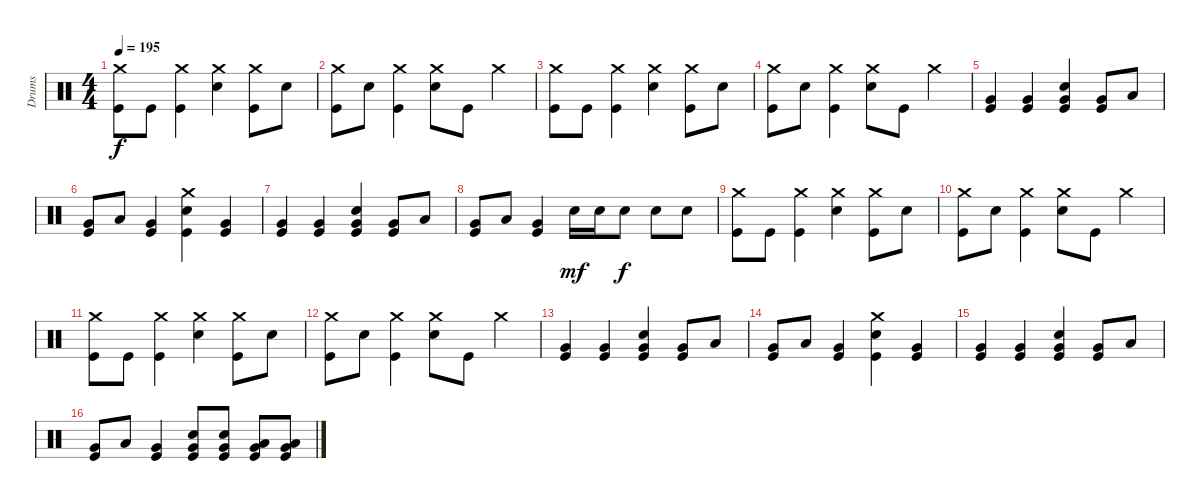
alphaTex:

\track ("Drums" "Drums") {instrument percussion}
\staff {score}
\articulation defaults
\ts (4 4)
\tempo 195
\clef neutral
\ks c
("Crash medium (hit)" "Kick (hit)").8{dy f} "Kick (hit)".8 ("Crash medium (hit)" "Kick (hit)").4 ("Crash medium (hit)" "Electric Snare (hit)").4 ("Crash medium (hit)" "Kick (hit)").8 "Electric Snare (hit)".8 |
("Crash medium (hit)" "Kick (hit)").8 "Electric Snare (hit)".8 ("Crash medium (hit)" "Kick (hit)").4 ("Crash medium (hit)" "Electric Snare (hit)").8 "Kick (hit)".8 "Crash medium (hit)".4 |
("Crash medium (hit)" "Kick (hit)").8 "Kick (hit)".8 ("Crash medium (hit)" "Kick (hit)").4 ("Crash medium (hit)" "Electric Snare (hit)").4 ("Crash medium (hit)" "Kick (hit)").8 "Electric Snare (hit)".8 |
("Crash medium (hit)" "Kick (hit)").8 "Electric Snare (hit)".8 ("Crash medium (hit)" "Kick (hit)").4 ("Crash medium (hit)" "Electric Snare (hit)").8 "Kick (hit)".8 "Crash medium (hit)".4 |
("Very Low Tom (hit)" "Kick (hit)").4 ("Very Low Tom (hit)" "Kick (hit)").4 ("Very Low Tom (hit)" "Electric Snare (hit)" "Kick (hit)").4 ("Very Low Tom (hit)" "Kick (hit)").8 "Low Tom (hit)".8 |
("Very Low Tom (hit)" "Kick (hit)").8 "Low Tom (hit)".8 ("Very Low Tom (hit)" "Kick (hit)").4 ("Crash medium (hit)" "Electric Snare (hit)" "Kick (hit)").4 ("Very Low Tom (hit)" "Kick (hit)").4 |
("Very Low Tom (hit)" "Kick (hit)").4 ("Very Low Tom (hit)" "Kick (hit)").4 ("Very Low Tom (hit)" "Electric Snare (hit)" "Kick (hit)").4 ("Very Low Tom (hit)" "Kick (hit)").8 "Low Tom (hit)".8 |
("Very Low Tom (hit)" "Kick (hit)").8 "Low Tom (hit)".8 ("Very Low Tom (hit)" "Kick (hit)").4 "Electric Snare (hit)".16{dy mf} "Electric Snare (hit)".16 "Electric Snare (hit)".8{dy f} "Electric Snare (hit)".8 "Electric Snare (hit)".8 |
("Crash medium (hit)" "Kick (hit)").8 "Kick (hit)".8 ("Crash medium (hit)" "Kick (hit)").4 ("Crash medium (hit)" "Electric Snare (hit)").4 ("Crash medium (hit)" "Kick (hit)").8 "Electric Snare (hit)".8 |
("Crash medium (hit)" "Kick (hit)").8 "Electric Snare (hit)".8 ("Crash medium (hit)" "Kick (hit)").4 ("Crash medium (hit)" "Electric Snare (hit)").8 "Kick (hit)".8 "Crash medium (hit)".4 |
("Crash medium (hit)" "Kick (hit)").8 "Kick (hit)".8 ("Crash medium (hit)" "Kick (hit)").4 ("Crash medium (hit)" "Electric Snare (hit)").4 ("Crash medium (hit)" "Kick (hit)").8 "Electric Snare (hit)".8 |
("Crash medium (hit)" "Kick (hit)").8 "Electric Snare (hit)".8 ("Crash medium (hit)" "Kick (hit)").4 ("Crash medium (hit)" "Electric Snare (hit)").8 "Kick (hit)".8 "Crash medium (hit)".4 |
("Very Low Tom (hit)" "Kick (hit)").4 ("Very Low Tom (hit)" "Kick (hit)").4 ("Very Low Tom (hit)" "Electric Snare (hit)" "Kick (hit)").4 ("Very Low Tom (hit)" "Kick (hit)").8 "Low Tom (hit)".8 |
("Very Low Tom (hit)" "Kick (hit)").8 "Low Tom (hit)".8 ("Very Low Tom (hit)" "Kick (hit)").4 ("Crash medium (hit)" "Electric Snare (hit)" "Kick (hit)").4 ("Very Low Tom (hit)" "Kick (hit)").4 |
("Very Low Tom (hit)" "Kick (hit)").4 ("Very Low Tom (hit)" "Kick (hit)").4 ("Very Low Tom (hit)" "Electric Snare (hit)" "Kick (hit)").4 ("Very Low Tom (hit)" "Kick (hit)").8 "Low Tom (hit)".8 |
("Very Low Tom (hit)" "Kick (hit)").8 "Low Tom (hit)".8 ("Very Low Tom (hit)" "Kick (hit)").4 ("Very Low Tom (hit)" "Electric Snare (hit)" "Kick (hit)").8 ("Very Low Tom (hit)" "Electric Snare (hit)" "Kick (hit)").8 ("Very Low Tom (hit)" "Low Floor Tom (hit)" "Kick (hit)").8 ("Very Low Tom (hit)" "Low Floor Tom (hit)" "Kick (hit)").8
